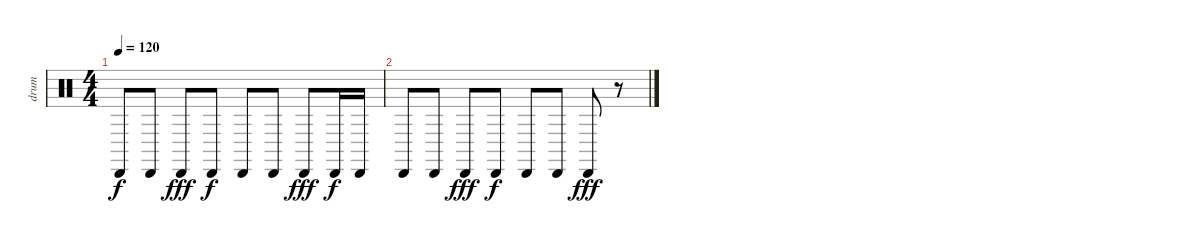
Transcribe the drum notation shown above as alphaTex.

\track ("drum" "drum") {instrument percussion}
\staff {score}
\articulation defaults
\ts (4 4)
\tempo 120
\clef neutral
\ks c "Cabasa (hit)".8{dy f} "Cabasa (hit)".8 "Cabasa (hit)".8{dy fff} "Cabasa (hit)".8{dy f} "Cabasa (hit)".8 "Cabasa (hit)".8 "Cabasa (hit)".8{dy fff} "Cabasa (hit)".16{dy f} "Cabasa (hit)".16
|
"Cabasa (hit)".8 "Cabasa (hit)".8 "Cabasa (hit)".8{dy fff} "Cabasa (hit)".8{dy f} "Cabasa (hit)".8 "Cabasa (hit)".8 "Cabasa (hit)".8{dy fff} r.8
